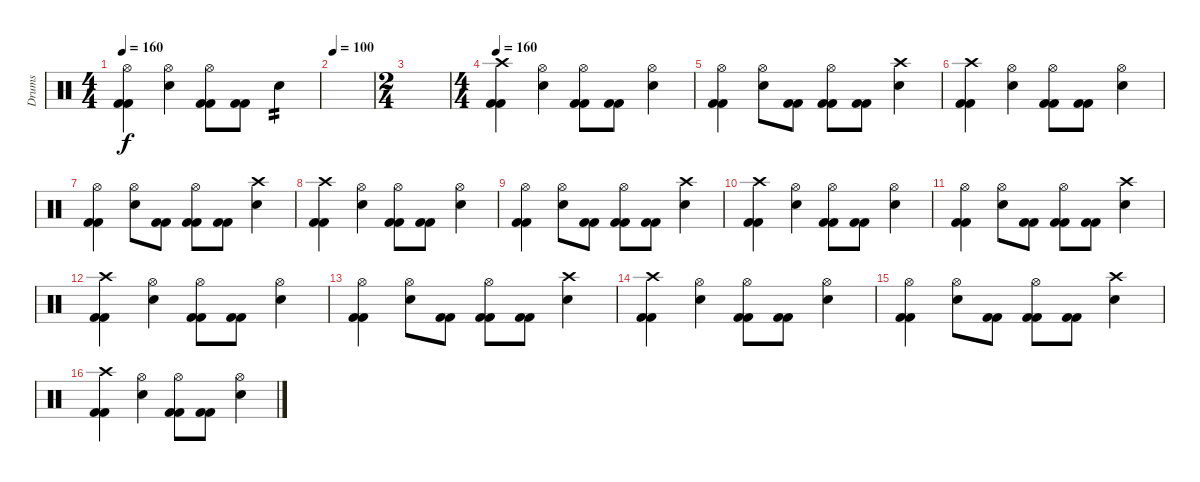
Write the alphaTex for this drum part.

\track ("Drums" "Drums") {instrument percussion}
\staff {score}
\articulation defaults
\ts (4 4)
\tempo 160
\clef neutral
\ks c
("Kick (hit) 2" "Kick (hit) 2" "Hi-Hat (open)").4{dy f} ("Hi-Hat (open)" "Electric Snare (hit)").4 ("Hi-Hat (open)" "Kick (hit) 2" "Kick (hit) 2").8 ("Kick (hit) 2" "Kick (hit) 2").8 "Electric Snare (hit)".4{tp 2} |
\tempo 100
|
\ts (2 4)
|
\ts (4 4)
\tempo 160
("Crash high (hit)" "Kick (hit) 2" "Kick (hit) 2").4 ("Electric Snare (hit)" "Hi-Hat (open)").4 ("Hi-Hat (open)" "Kick (hit) 2" "Kick (hit) 2").8 ("Kick (hit) 2" "Kick (hit) 2").8 ("Electric Snare (hit)" "Hi-Hat (open)").4 |
("Hi-Hat (open)" "Kick (hit) 2" "Kick (hit) 2").4 ("Electric Snare (hit)" "Hi-Hat (open)").8 ("Kick (hit) 2" "Kick (hit) 2").8 ("Kick (hit) 2" "Kick (hit) 2" "Hi-Hat (open)").8 ("Kick (hit) 2" "Kick (hit) 2").8 ("Electric Snare (hit)" "Crash high (hit)").4 |
("Crash high (hit)" "Kick (hit) 2" "Kick (hit) 2").4 ("Electric Snare (hit)" "Hi-Hat (open)").4 ("Hi-Hat (open)" "Kick (hit) 2" "Kick (hit) 2").8 ("Kick (hit) 2" "Kick (hit) 2").8 ("Electric Snare (hit)" "Hi-Hat (open)").4 |
("Hi-Hat (open)" "Kick (hit) 2" "Kick (hit) 2").4 ("Electric Snare (hit)" "Hi-Hat (open)").8 ("Kick (hit) 2" "Kick (hit) 2").8 ("Kick (hit) 2" "Kick (hit) 2" "Hi-Hat (open)").8 ("Kick (hit) 2" "Kick (hit) 2").8 ("Electric Snare (hit)" "Crash high (hit)").4 |
("Crash high (hit)" "Kick (hit) 2" "Kick (hit) 2").4 ("Electric Snare (hit)" "Hi-Hat (open)").4 ("Hi-Hat (open)" "Kick (hit) 2" "Kick (hit) 2").8 ("Kick (hit) 2" "Kick (hit) 2").8 ("Electric Snare (hit)" "Hi-Hat (open)").4 |
("Hi-Hat (open)" "Kick (hit) 2" "Kick (hit) 2").4 ("Electric Snare (hit)" "Hi-Hat (open)").8 ("Kick (hit) 2" "Kick (hit) 2").8 ("Kick (hit) 2" "Kick (hit) 2" "Hi-Hat (open)").8 ("Kick (hit) 2" "Kick (hit) 2").8 ("Electric Snare (hit)" "Crash high (hit)").4 |
("Crash high (hit)" "Kick (hit) 2" "Kick (hit) 2").4 ("Electric Snare (hit)" "Hi-Hat (open)").4 ("Hi-Hat (open)" "Kick (hit) 2" "Kick (hit) 2").8 ("Kick (hit) 2" "Kick (hit) 2").8 ("Electric Snare (hit)" "Hi-Hat (open)").4 |
("Hi-Hat (open)" "Kick (hit) 2" "Kick (hit) 2").4 ("Electric Snare (hit)" "Hi-Hat (open)").8 ("Kick (hit) 2" "Kick (hit) 2").8 ("Kick (hit) 2" "Kick (hit) 2" "Hi-Hat (open)").8 ("Kick (hit) 2" "Kick (hit) 2").8 ("Electric Snare (hit)" "Crash high (hit)").4 |
("Crash high (hit)" "Kick (hit) 2" "Kick (hit) 2").4 ("Electric Snare (hit)" "Hi-Hat (open)").4 ("Hi-Hat (open)" "Kick (hit) 2" "Kick (hit) 2").8 ("Kick (hit) 2" "Kick (hit) 2").8 ("Electric Snare (hit)" "Hi-Hat (open)").4 |
("Hi-Hat (open)" "Kick (hit) 2" "Kick (hit) 2").4 ("Electric Snare (hit)" "Hi-Hat (open)").8 ("Kick (hit) 2" "Kick (hit) 2").8 ("Kick (hit) 2" "Kick (hit) 2" "Hi-Hat (open)").8 ("Kick (hit) 2" "Kick (hit) 2").8 ("Electric Snare (hit)" "Crash high (hit)").4 |
("Crash high (hit)" "Kick (hit) 2" "Kick (hit) 2").4 ("Electric Snare (hit)" "Hi-Hat (open)").4 ("Hi-Hat (open)" "Kick (hit) 2" "Kick (hit) 2").8 ("Kick (hit) 2" "Kick (hit) 2").8 ("Electric Snare (hit)" "Hi-Hat (open)").4 |
("Hi-Hat (open)" "Kick (hit) 2" "Kick (hit) 2").4 ("Electric Snare (hit)" "Hi-Hat (open)").8 ("Kick (hit) 2" "Kick (hit) 2").8 ("Kick (hit) 2" "Kick (hit) 2" "Hi-Hat (open)").8 ("Kick (hit) 2" "Kick (hit) 2").8 ("Electric Snare (hit)" "Crash high (hit)").4 |
("Crash high (hit)" "Kick (hit) 2" "Kick (hit) 2").4 ("Electric Snare (hit)" "Hi-Hat (open)").4 ("Hi-Hat (open)" "Kick (hit) 2" "Kick (hit) 2").8 ("Kick (hit) 2" "Kick (hit) 2").8 ("Electric Snare (hit)" "Hi-Hat (open)").4
